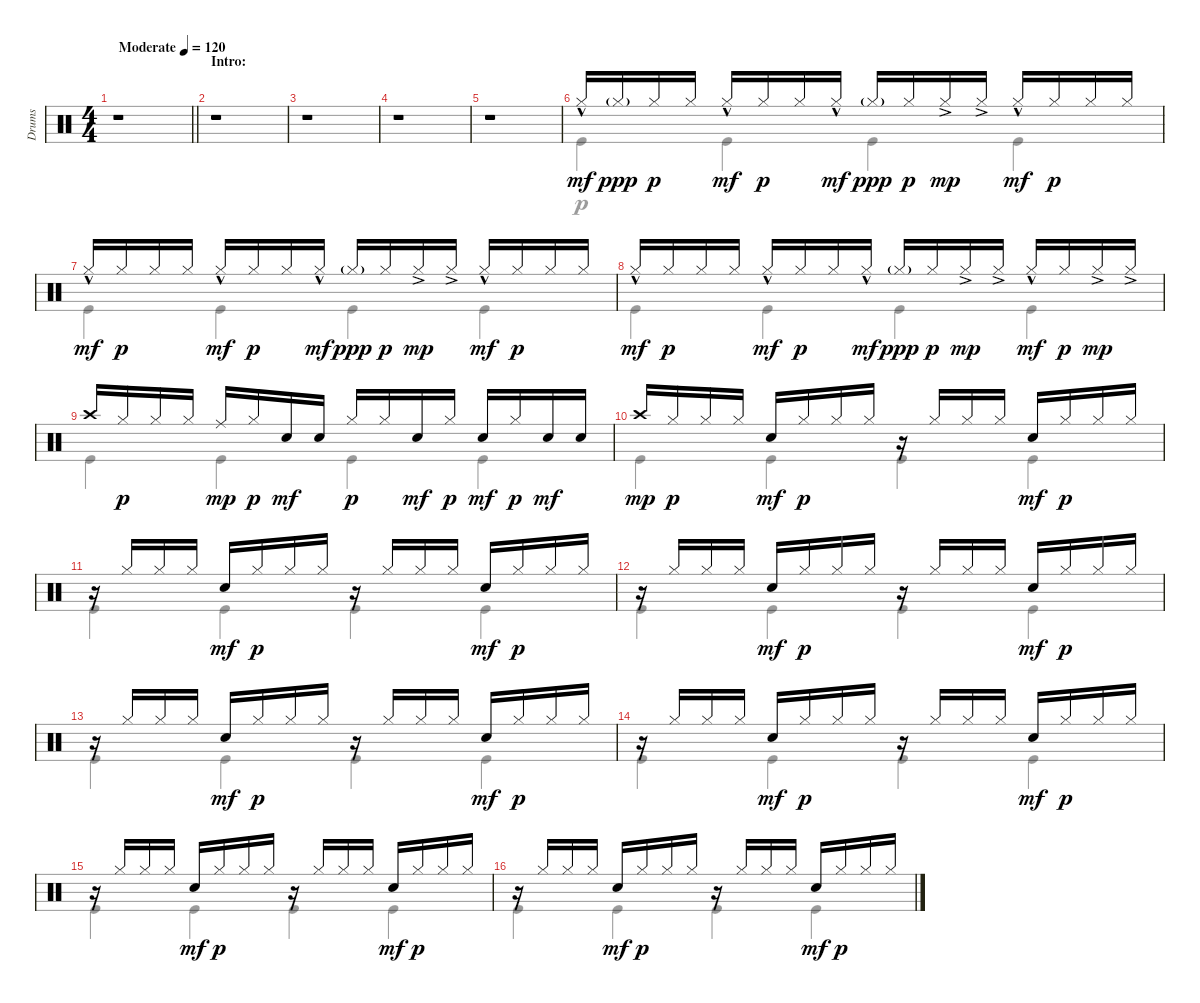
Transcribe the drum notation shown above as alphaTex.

\track ("Drums" "Drums") {instrument percussion}
\staff {score}
\articulation defaults
\voice
\ts (4 4)
\tempo (120 "Moderate")
\clef neutral
\barLineRight lightlight
\ks c
r.1{dy mf} |
\section ("" "Intro:")
r.1 |
r.1 |
r.1 |
r.1 |
"Hi-Hat (closed)"{hac}.16 "Hi-Hat (closed)"{g}.16{dy ppp} "Hi-Hat (closed)".16{dy p} "Hi-Hat (closed)".16 "Hi-Hat (closed)"{hac}.16{dy mf} "Hi-Hat (closed)".16{dy p} "Hi-Hat (closed)".16 "Hi-Hat (closed)"{hac}.16{dy mf} "Hi-Hat (closed)"{g}.16{dy ppp} "Hi-Hat (closed)".16{dy p} "Hi-Hat (closed)"{ac}.16{dy mp} "Hi-Hat (closed)"{ac}.16 "Hi-Hat (closed)"{hac}.16{dy mf} "Hi-Hat (closed)".16{dy p} "Hi-Hat (closed)".16 "Hi-Hat (closed)".16 |
"Hi-Hat (closed)"{hac}.16{dy mf} "Hi-Hat (closed)".16{dy p} "Hi-Hat (closed)".16 "Hi-Hat (closed)".16 "Hi-Hat (closed)"{hac}.16{dy mf} "Hi-Hat (closed)".16{dy p} "Hi-Hat (closed)".16 "Hi-Hat (closed)"{hac}.16{dy mf} "Hi-Hat (closed)"{g}.16{dy ppp} "Hi-Hat (closed)".16{dy p} "Hi-Hat (closed)"{ac}.16{dy mp} "Hi-Hat (closed)"{ac}.16 "Hi-Hat (closed)"{hac}.16{dy mf} "Hi-Hat (closed)".16{dy p} "Hi-Hat (closed)".16 "Hi-Hat (closed)".16 |
"Hi-Hat (closed)"{hac}.16{dy mf} "Hi-Hat (closed)".16{dy p} "Hi-Hat (closed)".16 "Hi-Hat (closed)".16 "Hi-Hat (closed)"{hac}.16{dy mf} "Hi-Hat (closed)".16{dy p} "Hi-Hat (closed)".16 "Hi-Hat (closed)"{hac}.16{dy mf} "Hi-Hat (closed)"{g}.16{dy ppp} "Hi-Hat (closed)".16{dy p} "Hi-Hat (closed)"{ac}.16{dy mp} "Hi-Hat (closed)"{ac}.16 "Hi-Hat (closed)"{hac}.16{dy mf} "Hi-Hat (closed)".16{dy p} "Hi-Hat (closed)"{ac}.16{dy mp} "Hi-Hat (closed)"{ac}.16 |
"Crash high (hit)".16 "Hi-Hat (closed)".16{dy p} "Hi-Hat (closed)".16 "Hi-Hat (closed)".16 "Ride (middle)".16{dy mp} "Hi-Hat (closed)".16{dy p} "Snare (hit) 2".16{dy mf} "Snare (hit) 2".16 "Hi-Hat (closed)".16{dy p} "Hi-Hat (closed)".16 "Snare (hit) 2".16{dy mf} "Hi-Hat (closed)".16{dy p} "Snare (hit) 2".16{dy mf} "Hi-Hat (closed)".16{dy p} "Snare (hit) 2".16{dy mf} "Snare (hit) 2".16 |
"Crash high (hit)".16{dy mp} "Hi-Hat (closed)".16{dy p} "Hi-Hat (closed)".16 "Hi-Hat (closed)".16 "Snare (hit) 2".16{dy mf} "Hi-Hat (closed)".16{dy p} "Hi-Hat (closed)".16 "Hi-Hat (closed)".16 r.16 "Hi-Hat (closed)".16 "Hi-Hat (closed)".16 "Hi-Hat (closed)".16 "Snare (hit) 2".16{dy mf} "Hi-Hat (closed)".16{dy p} "Hi-Hat (closed)".16 "Hi-Hat (closed)".16 |
r.16 "Hi-Hat (closed)".16 "Hi-Hat (closed)".16 "Hi-Hat (closed)".16 "Snare (hit) 2".16{dy mf} "Hi-Hat (closed)".16{dy p} "Hi-Hat (closed)".16 "Hi-Hat (closed)".16 r.16 "Hi-Hat (closed)".16 "Hi-Hat (closed)".16 "Hi-Hat (closed)".16 "Snare (hit) 2".16{dy mf} "Hi-Hat (closed)".16{dy p} "Hi-Hat (closed)".16 "Hi-Hat (closed)".16 |
r.16 "Hi-Hat (closed)".16 "Hi-Hat (closed)".16 "Hi-Hat (closed)".16 "Snare (hit) 2".16{dy mf} "Hi-Hat (closed)".16{dy p} "Hi-Hat (closed)".16 "Hi-Hat (closed)".16 r.16 "Hi-Hat (closed)".16 "Hi-Hat (closed)".16 "Hi-Hat (closed)".16 "Snare (hit) 2".16{dy mf} "Hi-Hat (closed)".16{dy p} "Hi-Hat (closed)".16 "Hi-Hat (closed)".16 |
r.16 "Hi-Hat (closed)".16 "Hi-Hat (closed)".16 "Hi-Hat (closed)".16 "Snare (hit) 2".16{dy mf} "Hi-Hat (closed)".16{dy p} "Hi-Hat (closed)".16 "Hi-Hat (closed)".16 r.16 "Hi-Hat (closed)".16 "Hi-Hat (closed)".16 "Hi-Hat (closed)".16 "Snare (hit) 2".16{dy mf} "Hi-Hat (closed)".16{dy p} "Hi-Hat (closed)".16 "Hi-Hat (closed)".16 |
r.16 "Hi-Hat (closed)".16 "Hi-Hat (closed)".16 "Hi-Hat (closed)".16 "Snare (hit) 2".16{dy mf} "Hi-Hat (closed)".16{dy p} "Hi-Hat (closed)".16 "Hi-Hat (closed)".16 r.16 "Hi-Hat (closed)".16 "Hi-Hat (closed)".16 "Hi-Hat (closed)".16 "Snare (hit) 2".16{dy mf} "Hi-Hat (closed)".16{dy p} "Hi-Hat (closed)".16 "Hi-Hat (closed)".16 |
r.16 "Hi-Hat (closed)".16 "Hi-Hat (closed)".16 "Hi-Hat (closed)".16 "Snare (hit) 2".16{dy mf} "Hi-Hat (closed)".16{dy p} "Hi-Hat (closed)".16 "Hi-Hat (closed)".16 r.16 "Hi-Hat (closed)".16 "Hi-Hat (closed)".16 "Hi-Hat (closed)".16 "Snare (hit) 2".16{dy mf} "Hi-Hat (closed)".16{dy p} "Hi-Hat (closed)".16 "Hi-Hat (closed)".16 |
r.16 "Hi-Hat (closed)".16 "Hi-Hat (closed)".16 "Hi-Hat (closed)".16 "Snare (hit) 2".16{dy mf} "Hi-Hat (closed)".16{dy p} "Hi-Hat (closed)".16 "Hi-Hat (closed)".16 r.16 "Hi-Hat (closed)".16 "Hi-Hat (closed)".16 "Hi-Hat (closed)".16 "Snare (hit) 2".16{dy mf} "Hi-Hat (closed)".16{dy p} "Hi-Hat (closed)".16 "Hi-Hat (closed)".16
\voice
\clef neutral
\ottava regular
\simile none
\barLineRight lightlight
\ks c
|
|
|
|
|
"Kick (hit)".4 "Kick (hit)".4 "Kick (hit)".4 "Kick (hit)".4 |
"Kick (hit)".4 "Kick (hit)".4 "Kick (hit)".4 "Kick (hit)".4 |
"Kick (hit)".4 "Kick (hit)".4 "Kick (hit)".4 "Kick (hit)".4 |
"Kick (hit)".4 "Kick (hit)".4 "Kick (hit)".4 "Kick (hit)".4 |
"Kick (hit)".4 "Kick (hit)".4 "Kick (hit)".4 "Kick (hit)".4 |
"Kick (hit)".4 "Kick (hit)".4 "Kick (hit)".4 "Kick (hit)".4 |
"Kick (hit)".4 "Kick (hit)".4 "Kick (hit)".4 "Kick (hit)".4 |
"Kick (hit)".4 "Kick (hit)".4 "Kick (hit)".4 "Kick (hit)".4 |
"Kick (hit)".4 "Kick (hit)".4 "Kick (hit)".4 "Kick (hit)".4 |
"Kick (hit)".4 "Kick (hit)".4 "Kick (hit)".4 "Kick (hit)".4 |
"Kick (hit)".4 "Kick (hit)".4 "Kick (hit)".4 "Kick (hit)".4
